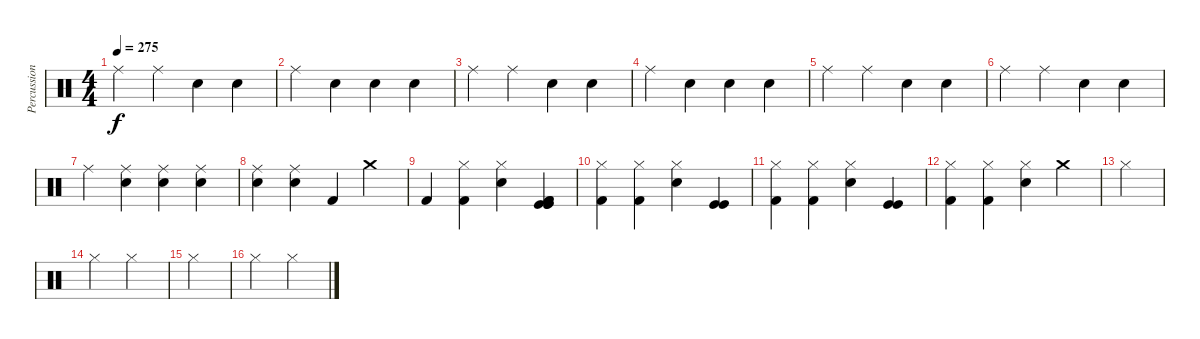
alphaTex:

\track ("Percussion" "Percussion") {instrument percussion}
\staff {score}
\articulation defaults
\ts (4 4)
\tempo 275
\clef neutral
\ks c "Ride (middle)".4{dy f} "Ride (middle)".4 "Snare (hit)".4 "Snare (hit)".4
|
"Ride (middle)".4 "Snare (hit)".4 "Snare (hit)".4 "Snare (hit)".4 |
"Ride (middle)".4 "Ride (middle)".4 "Snare (hit)".4 "Snare (hit)".4 |
"Ride (middle)".4 "Snare (hit)".4 "Snare (hit)".4 "Snare (hit)".4 |
"Ride (middle)".4 "Ride (middle)".4 "Snare (hit)".4 "Snare (hit)".4 |
"Ride (middle)".4 "Ride (middle)".4 "Snare (hit)".4 "Snare (hit)".4 |
"Ride (middle)".4 ("Ride (middle)" "Electric Snare (hit)").4 ("Ride (middle)" "Electric Snare (hit)").4 ("Ride (middle)" "Electric Snare (hit)").4 |
("Ride (middle)" "Electric Snare (hit)").4 ("Ride (middle)" "Electric Snare (hit)").4 "Kick (hit) 2".4 "Crash medium (hit)".4 |
"Kick (hit) 2".4 ("Kick (hit) 2" "Hi-Hat (closed)").4 ("Electric Snare (hit)" "Hi-Hat (closed)").4 ("Kick (hit) 2" "Kick (hit) 2" "Kick (hit)" "Kick (hit)" "Kick (hit)").4 |
("Kick (hit) 2" "Hi-Hat (closed)").4 ("Kick (hit) 2" "Hi-Hat (closed)").4 ("Electric Snare (hit)" "Hi-Hat (closed)").4 ("Kick (hit)" "Kick (hit)").4 |
("Kick (hit) 2" "Hi-Hat (closed)").4 ("Kick (hit) 2" "Hi-Hat (closed)").4 ("Electric Snare (hit)" "Hi-Hat (closed)").4 ("Kick (hit)" "Kick (hit)").4 |
("Kick (hit) 2" "Hi-Hat (closed)").4 ("Kick (hit) 2" "Hi-Hat (closed)").4 ("Electric Snare (hit)" "Hi-Hat (closed)").4 "Crash medium (hit)".4 |
"Hi-Hat (closed)".4 |
"Hi-Hat (closed)".4 "Hi-Hat (closed)".4 |
"Hi-Hat (closed)".4 |
"Hi-Hat (closed)".4 "Hi-Hat (closed)".4
